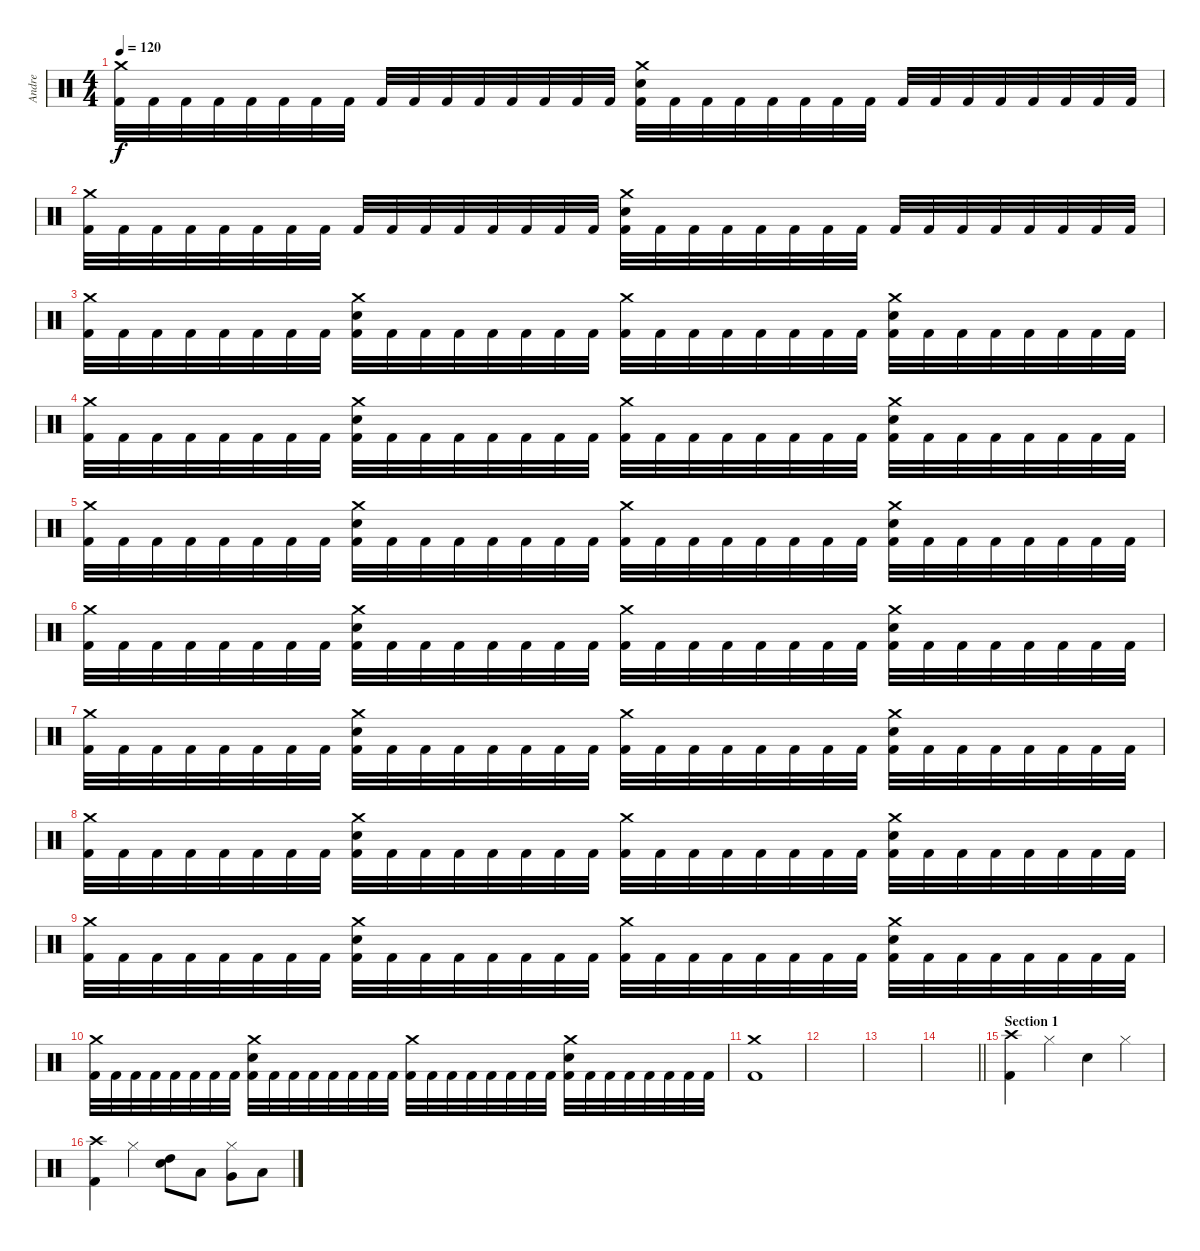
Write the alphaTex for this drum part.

\track ("Andre" "Andre") {instrument percussion}
\staff {score}
\articulation defaults
\ts (4 4)
\tempo 120
\clef neutral
\ks c
("Crash medium (hit)" "Kick (hit) 2").32{dy f} "Kick (hit) 2".32 "Kick (hit) 2".32 "Kick (hit) 2".32 "Kick (hit) 2".32 "Kick (hit) 2".32 "Kick (hit) 2".32 "Kick (hit) 2".32 "Kick (hit) 2".32 "Kick (hit) 2".32 "Kick (hit) 2".32 "Kick (hit) 2".32 "Kick (hit) 2".32 "Kick (hit) 2".32 "Kick (hit) 2".32 "Kick (hit) 2".32 ("Crash medium (hit)" "Snare (hit) 2" "Kick (hit) 2").32 "Kick (hit) 2".32 "Kick (hit) 2".32 "Kick (hit) 2".32 "Kick (hit) 2".32 "Kick (hit) 2".32 "Kick (hit) 2".32 "Kick (hit) 2".32 "Kick (hit) 2".32 "Kick (hit) 2".32 "Kick (hit) 2".32 "Kick (hit) 2".32 "Kick (hit) 2".32 "Kick (hit) 2".32 "Kick (hit) 2".32 "Kick (hit) 2".32 |
("Crash medium (hit)" "Kick (hit) 2").32 "Kick (hit) 2".32 "Kick (hit) 2".32 "Kick (hit) 2".32 "Kick (hit) 2".32 "Kick (hit) 2".32 "Kick (hit) 2".32 "Kick (hit) 2".32 "Kick (hit) 2".32 "Kick (hit) 2".32 "Kick (hit) 2".32 "Kick (hit) 2".32 "Kick (hit) 2".32 "Kick (hit) 2".32 "Kick (hit) 2".32 "Kick (hit) 2".32 ("Crash medium (hit)" "Snare (hit) 2" "Kick (hit) 2").32 "Kick (hit) 2".32 "Kick (hit) 2".32 "Kick (hit) 2".32 "Kick (hit) 2".32 "Kick (hit) 2".32 "Kick (hit) 2".32 "Kick (hit) 2".32 "Kick (hit) 2".32 "Kick (hit) 2".32 "Kick (hit) 2".32 "Kick (hit) 2".32 "Kick (hit) 2".32 "Kick (hit) 2".32 "Kick (hit) 2".32 "Kick (hit) 2".32 |
("Crash medium (hit)" "Kick (hit) 2").32 "Kick (hit) 2".32 "Kick (hit) 2".32 "Kick (hit) 2".32 "Kick (hit) 2".32 "Kick (hit) 2".32 "Kick (hit) 2".32 "Kick (hit) 2".32 ("Crash medium (hit)" "Snare (hit) 2" "Kick (hit) 2").32 "Kick (hit) 2".32 "Kick (hit) 2".32 "Kick (hit) 2".32 "Kick (hit) 2".32 "Kick (hit) 2".32 "Kick (hit) 2".32 "Kick (hit) 2".32 ("Crash medium (hit)" "Kick (hit) 2").32 "Kick (hit) 2".32 "Kick (hit) 2".32 "Kick (hit) 2".32 "Kick (hit) 2".32 "Kick (hit) 2".32 "Kick (hit) 2".32 "Kick (hit) 2".32 ("Crash medium (hit)" "Snare (hit) 2" "Kick (hit) 2").32 "Kick (hit) 2".32 "Kick (hit) 2".32 "Kick (hit) 2".32 "Kick (hit) 2".32 "Kick (hit) 2".32 "Kick (hit) 2".32 "Kick (hit) 2".32 |
("Crash medium (hit)" "Kick (hit) 2").32 "Kick (hit) 2".32 "Kick (hit) 2".32 "Kick (hit) 2".32 "Kick (hit) 2".32 "Kick (hit) 2".32 "Kick (hit) 2".32 "Kick (hit) 2".32 ("Crash medium (hit)" "Snare (hit) 2" "Kick (hit) 2").32 "Kick (hit) 2".32 "Kick (hit) 2".32 "Kick (hit) 2".32 "Kick (hit) 2".32 "Kick (hit) 2".32 "Kick (hit) 2".32 "Kick (hit) 2".32 ("Crash medium (hit)" "Kick (hit) 2").32 "Kick (hit) 2".32 "Kick (hit) 2".32 "Kick (hit) 2".32 "Kick (hit) 2".32 "Kick (hit) 2".32 "Kick (hit) 2".32 "Kick (hit) 2".32 ("Crash medium (hit)" "Snare (hit) 2" "Kick (hit) 2").32 "Kick (hit) 2".32 "Kick (hit) 2".32 "Kick (hit) 2".32 "Kick (hit) 2".32 "Kick (hit) 2".32 "Kick (hit) 2".32 "Kick (hit) 2".32 |
("Crash medium (hit)" "Kick (hit) 2").32 "Kick (hit) 2".32 "Kick (hit) 2".32 "Kick (hit) 2".32 "Kick (hit) 2".32 "Kick (hit) 2".32 "Kick (hit) 2".32 "Kick (hit) 2".32 ("Crash medium (hit)" "Snare (hit) 2" "Kick (hit) 2").32 "Kick (hit) 2".32 "Kick (hit) 2".32 "Kick (hit) 2".32 "Kick (hit) 2".32 "Kick (hit) 2".32 "Kick (hit) 2".32 "Kick (hit) 2".32 ("Crash medium (hit)" "Kick (hit) 2").32 "Kick (hit) 2".32 "Kick (hit) 2".32 "Kick (hit) 2".32 "Kick (hit) 2".32 "Kick (hit) 2".32 "Kick (hit) 2".32 "Kick (hit) 2".32 ("Crash medium (hit)" "Snare (hit) 2" "Kick (hit) 2").32 "Kick (hit) 2".32 "Kick (hit) 2".32 "Kick (hit) 2".32 "Kick (hit) 2".32 "Kick (hit) 2".32 "Kick (hit) 2".32 "Kick (hit) 2".32 |
("Crash medium (hit)" "Kick (hit) 2").32 "Kick (hit) 2".32 "Kick (hit) 2".32 "Kick (hit) 2".32 "Kick (hit) 2".32 "Kick (hit) 2".32 "Kick (hit) 2".32 "Kick (hit) 2".32 ("Crash medium (hit)" "Snare (hit) 2" "Kick (hit) 2").32 "Kick (hit) 2".32 "Kick (hit) 2".32 "Kick (hit) 2".32 "Kick (hit) 2".32 "Kick (hit) 2".32 "Kick (hit) 2".32 "Kick (hit) 2".32 ("Crash medium (hit)" "Kick (hit) 2").32 "Kick (hit) 2".32 "Kick (hit) 2".32 "Kick (hit) 2".32 "Kick (hit) 2".32 "Kick (hit) 2".32 "Kick (hit) 2".32 "Kick (hit) 2".32 ("Crash medium (hit)" "Snare (hit) 2" "Kick (hit) 2").32 "Kick (hit) 2".32 "Kick (hit) 2".32 "Kick (hit) 2".32 "Kick (hit) 2".32 "Kick (hit) 2".32 "Kick (hit) 2".32 "Kick (hit) 2".32 |
("Crash medium (hit)" "Kick (hit) 2").32 "Kick (hit) 2".32 "Kick (hit) 2".32 "Kick (hit) 2".32 "Kick (hit) 2".32 "Kick (hit) 2".32 "Kick (hit) 2".32 "Kick (hit) 2".32 ("Crash medium (hit)" "Snare (hit) 2" "Kick (hit) 2").32 "Kick (hit) 2".32 "Kick (hit) 2".32 "Kick (hit) 2".32 "Kick (hit) 2".32 "Kick (hit) 2".32 "Kick (hit) 2".32 "Kick (hit) 2".32 ("Crash medium (hit)" "Kick (hit) 2").32 "Kick (hit) 2".32 "Kick (hit) 2".32 "Kick (hit) 2".32 "Kick (hit) 2".32 "Kick (hit) 2".32 "Kick (hit) 2".32 "Kick (hit) 2".32 ("Crash medium (hit)" "Snare (hit) 2" "Kick (hit) 2").32 "Kick (hit) 2".32 "Kick (hit) 2".32 "Kick (hit) 2".32 "Kick (hit) 2".32 "Kick (hit) 2".32 "Kick (hit) 2".32 "Kick (hit) 2".32 |
("Crash medium (hit)" "Kick (hit) 2").32 "Kick (hit) 2".32 "Kick (hit) 2".32 "Kick (hit) 2".32 "Kick (hit) 2".32 "Kick (hit) 2".32 "Kick (hit) 2".32 "Kick (hit) 2".32 ("Crash medium (hit)" "Snare (hit) 2" "Kick (hit) 2").32 "Kick (hit) 2".32 "Kick (hit) 2".32 "Kick (hit) 2".32 "Kick (hit) 2".32 "Kick (hit) 2".32 "Kick (hit) 2".32 "Kick (hit) 2".32 ("Crash medium (hit)" "Kick (hit) 2").32 "Kick (hit) 2".32 "Kick (hit) 2".32 "Kick (hit) 2".32 "Kick (hit) 2".32 "Kick (hit) 2".32 "Kick (hit) 2".32 "Kick (hit) 2".32 ("Crash medium (hit)" "Snare (hit) 2" "Kick (hit) 2").32 "Kick (hit) 2".32 "Kick (hit) 2".32 "Kick (hit) 2".32 "Kick (hit) 2".32 "Kick (hit) 2".32 "Kick (hit) 2".32 "Kick (hit) 2".32 |
("Crash medium (hit)" "Kick (hit) 2").32 "Kick (hit) 2".32 "Kick (hit) 2".32 "Kick (hit) 2".32 "Kick (hit) 2".32 "Kick (hit) 2".32 "Kick (hit) 2".32 "Kick (hit) 2".32 ("Crash medium (hit)" "Snare (hit) 2" "Kick (hit) 2").32 "Kick (hit) 2".32 "Kick (hit) 2".32 "Kick (hit) 2".32 "Kick (hit) 2".32 "Kick (hit) 2".32 "Kick (hit) 2".32 "Kick (hit) 2".32 ("Crash medium (hit)" "Kick (hit) 2").32 "Kick (hit) 2".32 "Kick (hit) 2".32 "Kick (hit) 2".32 "Kick (hit) 2".32 "Kick (hit) 2".32 "Kick (hit) 2".32 "Kick (hit) 2".32 ("Crash medium (hit)" "Snare (hit) 2" "Kick (hit) 2").32 "Kick (hit) 2".32 "Kick (hit) 2".32 "Kick (hit) 2".32 "Kick (hit) 2".32 "Kick (hit) 2".32 "Kick (hit) 2".32 "Kick (hit) 2".32 |
("Crash medium (hit)" "Kick (hit) 2").32 "Kick (hit) 2".32 "Kick (hit) 2".32 "Kick (hit) 2".32 "Kick (hit) 2".32 "Kick (hit) 2".32 "Kick (hit) 2".32 "Kick (hit) 2".32 ("Crash medium (hit)" "Snare (hit) 2" "Kick (hit) 2").32 "Kick (hit) 2".32 "Kick (hit) 2".32 "Kick (hit) 2".32 "Kick (hit) 2".32 "Kick (hit) 2".32 "Kick (hit) 2".32 "Kick (hit) 2".32 ("Crash medium (hit)" "Kick (hit) 2").32 "Kick (hit) 2".32 "Kick (hit) 2".32 "Kick (hit) 2".32 "Kick (hit) 2".32 "Kick (hit) 2".32 "Kick (hit) 2".32 "Kick (hit) 2".32 ("Crash medium (hit)" "Snare (hit) 2" "Kick (hit) 2").32 "Kick (hit) 2".32 "Kick (hit) 2".32 "Kick (hit) 2".32 "Kick (hit) 2".32 "Kick (hit) 2".32 "Kick (hit) 2".32 "Kick (hit) 2".32 |
("Crash medium (hit)" "Kick (hit) 2").1 |
|
|
\barLineRight lightlight
|
\section ("" "Section 1")
("Crash high (hit)" "Kick (hit) 2").4 "Hi-Hat (closed)".4 "Snare (hit) 2".4 "Hi-Hat (closed)".4 |
("Crash high (hit)" "Kick (hit) 2").4 "Hi-Hat (closed)".4 ("High Tom (hit)" "Snare (hit) 2").8 "Low Tom (hit)".8 ("Hi-Hat (closed)" "Very Low Tom (hit)").8 "Low Floor Tom (hit)".8
